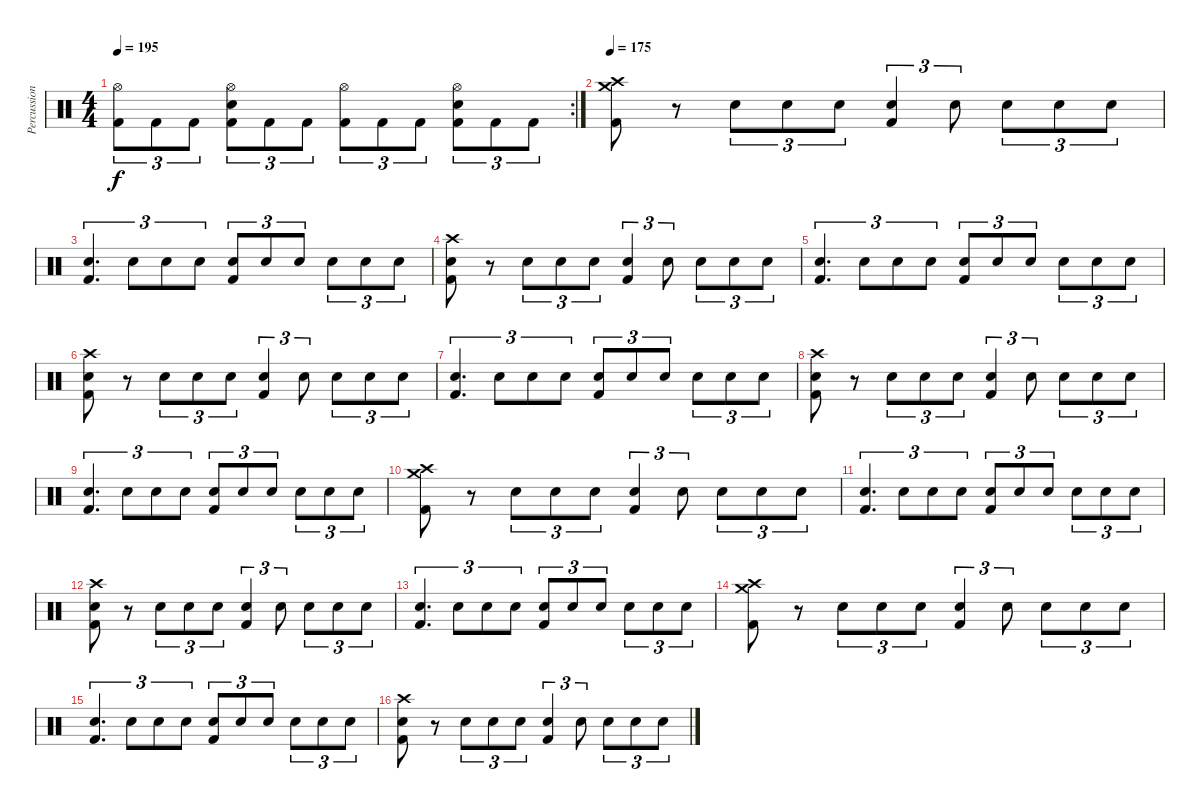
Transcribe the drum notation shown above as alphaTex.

\track ("Percussion" "Percussion") {instrument percussion}
\staff {score}
\articulation defaults
\rc 2
\ts (4 4)
\tempo 195
\clef neutral
\ks c
("Hi-Hat (open)" "Kick (hit) 2").8{tu (3 2) dy f} "Kick (hit) 2".8{tu (3 2)} "Kick (hit) 2".8{tu (3 2)} ("Hi-Hat (open)" "Electric Snare (hit)" "Kick (hit) 2").8{tu (3 2)} "Kick (hit) 2".8{tu (3 2)} "Kick (hit) 2".8{tu (3 2)} ("Hi-Hat (open)" "Kick (hit) 2").8{tu (3 2)} "Kick (hit) 2".8{tu (3 2)} "Kick (hit) 2".8{tu (3 2)} ("Hi-Hat (open)" "Electric Snare (hit)" "Kick (hit) 2").8{tu (3 2)} "Kick (hit) 2".8{tu (3 2)} "Kick (hit) 2".8{tu (3 2)} |
\tempo 175
("Crash medium (hit)" "Crash high (hit)" "Kick (hit) 2").8 r.8 "Electric Snare (hit)".8{tu (3 2)} "Electric Snare (hit)".8{tu (3 2)} "Electric Snare (hit)".8{tu (3 2)} ("Electric Snare (hit)" "Kick (hit) 2").4{tu (3 2)} "Electric Snare (hit)".8{tu (3 2)} "Electric Snare (hit)".8{tu (3 2)} "Electric Snare (hit)".8{tu (3 2)} "Electric Snare (hit)".8{tu (3 2)} |
("Electric Snare (hit)" "Kick (hit) 2").4{d tu (3 2)} "Electric Snare (hit)".8{tu (3 2)} "Electric Snare (hit)".8{tu (3 2)} "Electric Snare (hit)".8{tu (3 2)} ("Electric Snare (hit)" "Kick (hit) 2").8{tu (3 2)} "Electric Snare (hit)".8{tu (3 2)} "Electric Snare (hit)".8{tu (3 2)} "Electric Snare (hit)".8{tu (3 2)} "Electric Snare (hit)".8{tu (3 2)} "Electric Snare (hit)".8{tu (3 2)} |
("Crash high (hit)" "Electric Snare (hit)" "Kick (hit) 2").8 r.8 "Electric Snare (hit)".8{tu (3 2)} "Electric Snare (hit)".8{tu (3 2)} "Electric Snare (hit)".8{tu (3 2)} ("Electric Snare (hit)" "Kick (hit) 2").4{tu (3 2)} "Electric Snare (hit)".8{tu (3 2)} "Electric Snare (hit)".8{tu (3 2)} "Electric Snare (hit)".8{tu (3 2)} "Electric Snare (hit)".8{tu (3 2)} |
("Electric Snare (hit)" "Kick (hit) 2").4{d tu (3 2)} "Electric Snare (hit)".8{tu (3 2)} "Electric Snare (hit)".8{tu (3 2)} "Electric Snare (hit)".8{tu (3 2)} ("Electric Snare (hit)" "Kick (hit) 2").8{tu (3 2)} "Electric Snare (hit)".8{tu (3 2)} "Electric Snare (hit)".8{tu (3 2)} "Electric Snare (hit)".8{tu (3 2)} "Electric Snare (hit)".8{tu (3 2)} "Electric Snare (hit)".8{tu (3 2)} |
("Crash high (hit)" "Electric Snare (hit)" "Kick (hit) 2").8 r.8 "Electric Snare (hit)".8{tu (3 2)} "Electric Snare (hit)".8{tu (3 2)} "Electric Snare (hit)".8{tu (3 2)} ("Electric Snare (hit)" "Kick (hit) 2").4{tu (3 2)} "Electric Snare (hit)".8{tu (3 2)} "Electric Snare (hit)".8{tu (3 2)} "Electric Snare (hit)".8{tu (3 2)} "Electric Snare (hit)".8{tu (3 2)} |
("Electric Snare (hit)" "Kick (hit) 2").4{d tu (3 2)} "Electric Snare (hit)".8{tu (3 2)} "Electric Snare (hit)".8{tu (3 2)} "Electric Snare (hit)".8{tu (3 2)} ("Electric Snare (hit)" "Kick (hit) 2").8{tu (3 2)} "Electric Snare (hit)".8{tu (3 2)} "Electric Snare (hit)".8{tu (3 2)} "Electric Snare (hit)".8{tu (3 2)} "Electric Snare (hit)".8{tu (3 2)} "Electric Snare (hit)".8{tu (3 2)} |
("Crash high (hit)" "Electric Snare (hit)" "Kick (hit) 2").8 r.8 "Electric Snare (hit)".8{tu (3 2)} "Electric Snare (hit)".8{tu (3 2)} "Electric Snare (hit)".8{tu (3 2)} ("Electric Snare (hit)" "Kick (hit) 2").4{tu (3 2)} "Electric Snare (hit)".8{tu (3 2)} "Electric Snare (hit)".8{tu (3 2)} "Electric Snare (hit)".8{tu (3 2)} "Electric Snare (hit)".8{tu (3 2)} |
("Electric Snare (hit)" "Kick (hit) 2").4{d tu (3 2)} "Electric Snare (hit)".8{tu (3 2)} "Electric Snare (hit)".8{tu (3 2)} "Electric Snare (hit)".8{tu (3 2)} ("Electric Snare (hit)" "Kick (hit) 2").8{tu (3 2)} "Electric Snare (hit)".8{tu (3 2)} "Electric Snare (hit)".8{tu (3 2)} "Electric Snare (hit)".8{tu (3 2)} "Electric Snare (hit)".8{tu (3 2)} "Electric Snare (hit)".8{tu (3 2)} |
("Crash medium (hit)" "Crash high (hit)" "Kick (hit) 2").8 r.8 "Electric Snare (hit)".8{tu (3 2)} "Electric Snare (hit)".8{tu (3 2)} "Electric Snare (hit)".8{tu (3 2)} ("Electric Snare (hit)" "Kick (hit) 2").4{tu (3 2)} "Electric Snare (hit)".8{tu (3 2)} "Electric Snare (hit)".8{tu (3 2)} "Electric Snare (hit)".8{tu (3 2)} "Electric Snare (hit)".8{tu (3 2)} |
("Electric Snare (hit)" "Kick (hit) 2").4{d tu (3 2)} "Electric Snare (hit)".8{tu (3 2)} "Electric Snare (hit)".8{tu (3 2)} "Electric Snare (hit)".8{tu (3 2)} ("Electric Snare (hit)" "Kick (hit) 2").8{tu (3 2)} "Electric Snare (hit)".8{tu (3 2)} "Electric Snare (hit)".8{tu (3 2)} "Electric Snare (hit)".8{tu (3 2)} "Electric Snare (hit)".8{tu (3 2)} "Electric Snare (hit)".8{tu (3 2)} |
("Crash high (hit)" "Electric Snare (hit)" "Kick (hit) 2").8 r.8 "Electric Snare (hit)".8{tu (3 2)} "Electric Snare (hit)".8{tu (3 2)} "Electric Snare (hit)".8{tu (3 2)} ("Electric Snare (hit)" "Kick (hit) 2").4{tu (3 2)} "Electric Snare (hit)".8{tu (3 2)} "Electric Snare (hit)".8{tu (3 2)} "Electric Snare (hit)".8{tu (3 2)} "Electric Snare (hit)".8{tu (3 2)} |
("Electric Snare (hit)" "Kick (hit) 2").4{d tu (3 2)} "Electric Snare (hit)".8{tu (3 2)} "Electric Snare (hit)".8{tu (3 2)} "Electric Snare (hit)".8{tu (3 2)} ("Electric Snare (hit)" "Kick (hit) 2").8{tu (3 2)} "Electric Snare (hit)".8{tu (3 2)} "Electric Snare (hit)".8{tu (3 2)} "Electric Snare (hit)".8{tu (3 2)} "Electric Snare (hit)".8{tu (3 2)} "Electric Snare (hit)".8{tu (3 2)} |
("Crash medium (hit)" "Crash high (hit)" "Kick (hit) 2").8 r.8 "Electric Snare (hit)".8{tu (3 2)} "Electric Snare (hit)".8{tu (3 2)} "Electric Snare (hit)".8{tu (3 2)} ("Electric Snare (hit)" "Kick (hit) 2").4{tu (3 2)} "Electric Snare (hit)".8{tu (3 2)} "Electric Snare (hit)".8{tu (3 2)} "Electric Snare (hit)".8{tu (3 2)} "Electric Snare (hit)".8{tu (3 2)} |
("Electric Snare (hit)" "Kick (hit) 2").4{d tu (3 2)} "Electric Snare (hit)".8{tu (3 2)} "Electric Snare (hit)".8{tu (3 2)} "Electric Snare (hit)".8{tu (3 2)} ("Electric Snare (hit)" "Kick (hit) 2").8{tu (3 2)} "Electric Snare (hit)".8{tu (3 2)} "Electric Snare (hit)".8{tu (3 2)} "Electric Snare (hit)".8{tu (3 2)} "Electric Snare (hit)".8{tu (3 2)} "Electric Snare (hit)".8{tu (3 2)} |
("Crash high (hit)" "Electric Snare (hit)" "Kick (hit) 2").8 r.8 "Electric Snare (hit)".8{tu (3 2)} "Electric Snare (hit)".8{tu (3 2)} "Electric Snare (hit)".8{tu (3 2)} ("Electric Snare (hit)" "Kick (hit) 2").4{tu (3 2)} "Electric Snare (hit)".8{tu (3 2)} "Electric Snare (hit)".8{tu (3 2)} "Electric Snare (hit)".8{tu (3 2)} "Electric Snare (hit)".8{tu (3 2)}
